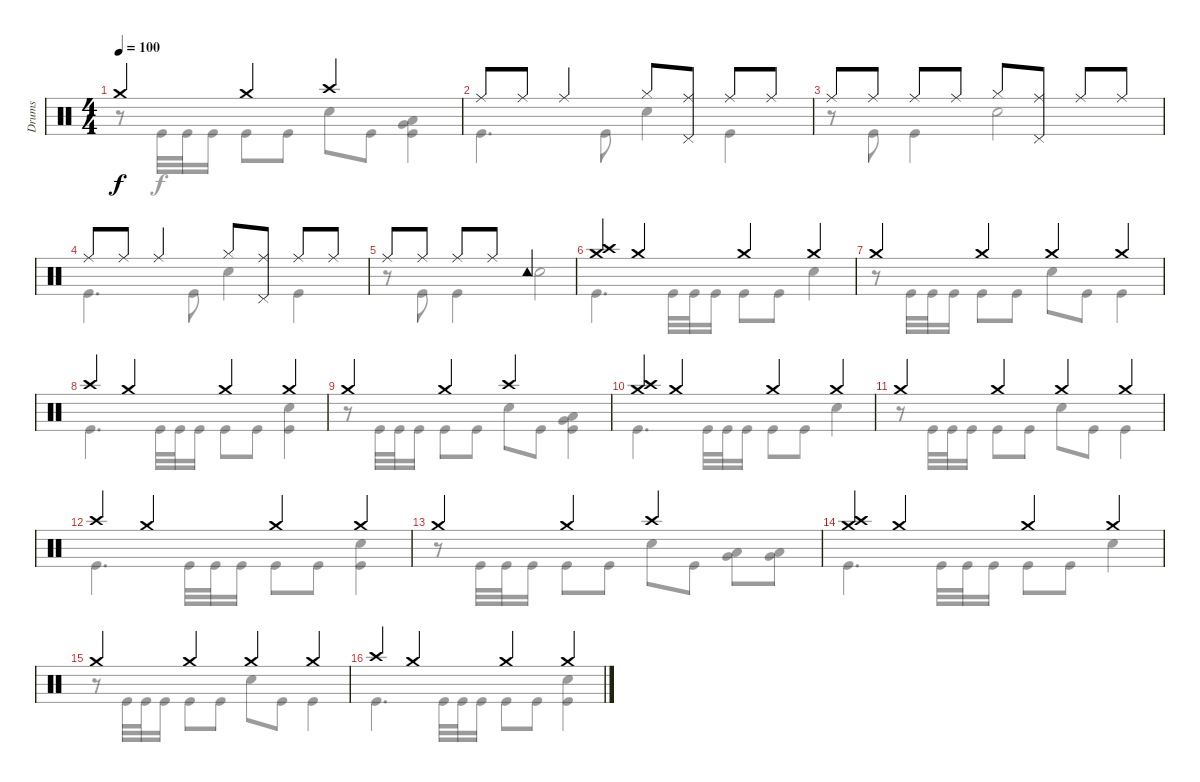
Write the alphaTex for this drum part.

\track ("Drums" "Drums") {instrument percussion}
\staff {score}
\articulation defaults
\voice
\ts (4 4)
\tempo 100
\clef neutral
\ks c "Crash medium (hit)".4{dy f} "Crash medium (hit)".4 "Crash high (hit)".2
|
"Ride (middle)".8 "Ride (middle)".8 "Ride (middle)".4 "Hi-Hat (closed)".8 ("Ride (middle)" "Pedal Hi-Hat (hit)").8 "Ride (middle)".8 "Ride (middle)".8 |
"Ride (middle)".8 "Ride (middle)".8 "Ride (middle)".8 "Ride (middle)".8 "Hi-Hat (closed)".8 ("Ride (middle)" "Pedal Hi-Hat (hit)").8 "Ride (middle)".8 "Ride (middle)".8 |
"Ride (middle)".8 "Ride (middle)".8 "Ride (middle)".4 "Hi-Hat (closed)".8 ("Ride (middle)" "Pedal Hi-Hat (hit)").8 "Ride (middle)".8 "Ride (middle)".8 |
"Ride (middle)".8 "Ride (middle)".8 "Ride (middle)".8 "Ride (middle)".8 "Tambourine (hit)".2 |
("Crash medium (hit)" "Crash high (hit)").4 "Crash medium (hit)".4 "Crash medium (hit)".4 "Crash medium (hit)".4 |
"Crash medium (hit)".4 "Crash medium (hit)".4 "Crash medium (hit)".4 "Crash medium (hit)".4 |
"Crash high (hit)".4 "Crash medium (hit)".4 "Crash medium (hit)".4 "Crash medium (hit)".4 |
"Crash medium (hit)".4 "Crash medium (hit)".4 "Crash high (hit)".2 |
("Crash medium (hit)" "Crash high (hit)").4 "Crash medium (hit)".4 "Crash medium (hit)".4 "Crash medium (hit)".4 |
"Crash medium (hit)".4 "Crash medium (hit)".4 "Crash medium (hit)".4 "Crash medium (hit)".4 |
"Crash high (hit)".4 "Crash medium (hit)".4 "Crash medium (hit)".4 "Crash medium (hit)".4 |
"Crash medium (hit)".4 "Crash medium (hit)".4 "Crash high (hit)".2 |
("Crash medium (hit)" "Crash high (hit)").4 "Crash medium (hit)".4 "Crash medium (hit)".4 "Crash medium (hit)".4 |
"Crash medium (hit)".4 "Crash medium (hit)".4 "Crash medium (hit)".4 "Crash medium (hit)".4 |
"Crash high (hit)".4 "Crash medium (hit)".4 "Crash medium (hit)".4 "Crash medium (hit)".4
\voice
\clef neutral
\ottava regular
\simile none
\ks c
r.8{dy f} "Kick (hit)".32 "Kick (hit)".32 "Kick (hit)".16 "Kick (hit)".8 "Kick (hit)".8 "Snare (hit) 2".8 "Kick (hit)".8 ("Very Low Tom (hit)" "Low Floor Tom (hit)" "Kick (hit)").4 |
"Kick (hit)".4{d} "Kick (hit)".8 "Snare (hit) 2".4 "Kick (hit)".4 |
r.8 "Kick (hit)".8 "Kick (hit)".4 "Snare (hit) 2".2 |
"Kick (hit)".4{d} "Kick (hit)".8 "Snare (hit) 2".4 "Kick (hit)".4 |
r.8 "Kick (hit)".8 "Kick (hit)".4 "Snare (hit) 2".2 |
"Kick (hit)".4{d} "Kick (hit)".32 "Kick (hit)".32 "Kick (hit)".16 "Kick (hit)".8 "Kick (hit)".8 "Snare (hit) 2".4 |
r.8 "Kick (hit)".32 "Kick (hit)".32 "Kick (hit)".16 "Kick (hit)".8 "Kick (hit)".8 "Snare (hit) 2".8 "Kick (hit)".8 "Kick (hit)".4 |
"Kick (hit)".4{d} "Kick (hit)".32 "Kick (hit)".32 "Kick (hit)".16 "Kick (hit)".8 "Kick (hit)".8 ("Snare (hit) 2" "Kick (hit)").4 |
r.8 "Kick (hit)".32 "Kick (hit)".32 "Kick (hit)".16 "Kick (hit)".8 "Kick (hit)".8 "Snare (hit) 2".8 "Kick (hit)".8 ("Very Low Tom (hit)" "Low Floor Tom (hit)" "Kick (hit)").4 |
"Kick (hit)".4{d} "Kick (hit)".32 "Kick (hit)".32 "Kick (hit)".16 "Kick (hit)".8 "Kick (hit)".8 "Snare (hit) 2".4 |
r.8 "Kick (hit)".32 "Kick (hit)".32 "Kick (hit)".16 "Kick (hit)".8 "Kick (hit)".8 "Snare (hit) 2".8 "Kick (hit)".8 "Kick (hit)".4 |
"Kick (hit)".4{d} "Kick (hit)".32 "Kick (hit)".32 "Kick (hit)".16 "Kick (hit)".8 "Kick (hit)".8 ("Snare (hit) 2" "Kick (hit)").4 |
r.8 "Kick (hit)".32 "Kick (hit)".32 "Kick (hit)".16 "Kick (hit)".8 "Kick (hit)".8 "Snare (hit) 2".8 "Kick (hit)".8 ("Very Low Tom (hit)" "Low Floor Tom (hit)").8 ("Very Low Tom (hit)" "Low Floor Tom (hit)").8 |
"Kick (hit)".4{d} "Kick (hit)".32 "Kick (hit)".32 "Kick (hit)".16 "Kick (hit)".8 "Kick (hit)".8 "Snare (hit) 2".4 |
r.8 "Kick (hit)".32 "Kick (hit)".32 "Kick (hit)".16 "Kick (hit)".8 "Kick (hit)".8 "Snare (hit) 2".8 "Kick (hit)".8 "Kick (hit)".4 |
"Kick (hit)".4{d} "Kick (hit)".32 "Kick (hit)".32 "Kick (hit)".16 "Kick (hit)".8 "Kick (hit)".8 ("Snare (hit) 2" "Kick (hit)").4
